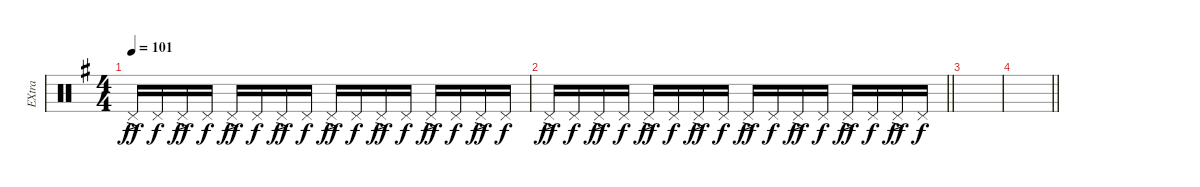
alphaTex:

\track ("EXtra" "EXtra") {instrument percussion}
\staff {score}
\articulation defaults
\ts (4 4)
\tempo 101
\clef neutral
\ks g "Pedal Hi-Hat (hit)"{ac}.16{dy ff} "Pedal Hi-Hat (hit)".16{dy f} "Pedal Hi-Hat (hit)"{ac}.16{dy ff} "Pedal Hi-Hat (hit)".16{dy f} "Pedal Hi-Hat (hit)"{ac}.16{dy ff} "Pedal Hi-Hat (hit)".16{dy f} "Pedal Hi-Hat (hit)"{ac}.16{dy ff} "Pedal Hi-Hat (hit)".16{dy f} "Pedal Hi-Hat (hit)"{ac}.16{dy ff} "Pedal Hi-Hat (hit)".16{dy f} "Pedal Hi-Hat (hit)"{ac}.16{dy ff} "Pedal Hi-Hat (hit)".16{dy f} "Pedal Hi-Hat (hit)"{ac}.16{dy ff} "Pedal Hi-Hat (hit)".16{dy f} "Pedal Hi-Hat (hit)"{ac}.16{dy ff} "Pedal Hi-Hat (hit)".16{dy f}
|
\barLineRight lightlight "Pedal Hi-Hat (hit)"{ac}.16{dy ff} "Pedal Hi-Hat (hit)".16{dy f} "Pedal Hi-Hat (hit)"{ac}.16{dy ff} "Pedal Hi-Hat (hit)".16{dy f} "Pedal Hi-Hat (hit)"{ac}.16{dy ff} "Pedal Hi-Hat (hit)".16{dy f} "Pedal Hi-Hat (hit)"{ac}.16{dy ff} "Pedal Hi-Hat (hit)".16{dy f} "Pedal Hi-Hat (hit)"{ac}.16{dy ff} "Pedal Hi-Hat (hit)".16{dy f} "Pedal Hi-Hat (hit)"{ac}.16{dy ff} "Pedal Hi-Hat (hit)".16{dy f} "Pedal Hi-Hat (hit)"{ac}.16{dy ff} "Pedal Hi-Hat (hit)".16{dy f} "Pedal Hi-Hat (hit)"{ac}.16{dy ff} "Pedal Hi-Hat (hit)".16{dy f}
|
|
\barLineRight lightlight
